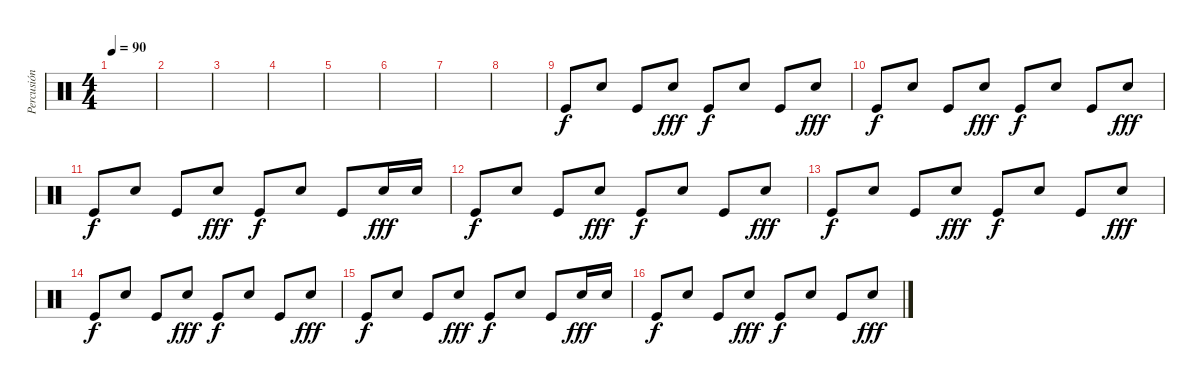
\track ("Percusión" "Percusión") {instrument percussion}
\staff {score}
\articulation defaults
\ts (4 4)
\tempo 90
\clef neutral
\ks c
|
|
|
|
|
|
|
|
"Kick (hit)".8{dy f} "Snare (hit) 2".8 "Kick (hit)".8 "Snare (hit) 2".8{dy fff} "Kick (hit)".8{dy f} "Snare (hit) 2".8 "Kick (hit)".8 "Snare (hit) 2".8{dy fff} |
"Kick (hit)".8{dy f} "Snare (hit) 2".8 "Kick (hit)".8 "Snare (hit) 2".8{dy fff} "Kick (hit)".8{dy f} "Snare (hit) 2".8 "Kick (hit)".8 "Snare (hit) 2".8{dy fff} |
"Kick (hit)".8{dy f} "Snare (hit) 2".8 "Kick (hit)".8 "Snare (hit) 2".8{dy fff} "Kick (hit)".8{dy f} "Snare (hit) 2".8 "Kick (hit)".8 "Snare (hit) 2".16{dy fff} "Snare (hit) 2".16 |
"Kick (hit)".8{dy f} "Snare (hit) 2".8 "Kick (hit)".8 "Snare (hit) 2".8{dy fff} "Kick (hit)".8{dy f} "Snare (hit) 2".8 "Kick (hit)".8 "Snare (hit) 2".8{dy fff} |
"Kick (hit)".8{dy f} "Snare (hit) 2".8 "Kick (hit)".8 "Snare (hit) 2".8{dy fff} "Kick (hit)".8{dy f} "Snare (hit) 2".8 "Kick (hit)".8 "Snare (hit) 2".8{dy fff} |
"Kick (hit)".8{dy f} "Snare (hit) 2".8 "Kick (hit)".8 "Snare (hit) 2".8{dy fff} "Kick (hit)".8{dy f} "Snare (hit) 2".8 "Kick (hit)".8 "Snare (hit) 2".8{dy fff} |
"Kick (hit)".8{dy f} "Snare (hit) 2".8 "Kick (hit)".8 "Snare (hit) 2".8{dy fff} "Kick (hit)".8{dy f} "Snare (hit) 2".8 "Kick (hit)".8 "Snare (hit) 2".16{dy fff} "Snare (hit) 2".16 |
"Kick (hit)".8{dy f} "Snare (hit) 2".8 "Kick (hit)".8 "Snare (hit) 2".8{dy fff} "Kick (hit)".8{dy f} "Snare (hit) 2".8 "Kick (hit)".8 "Snare (hit) 2".8{dy fff}
